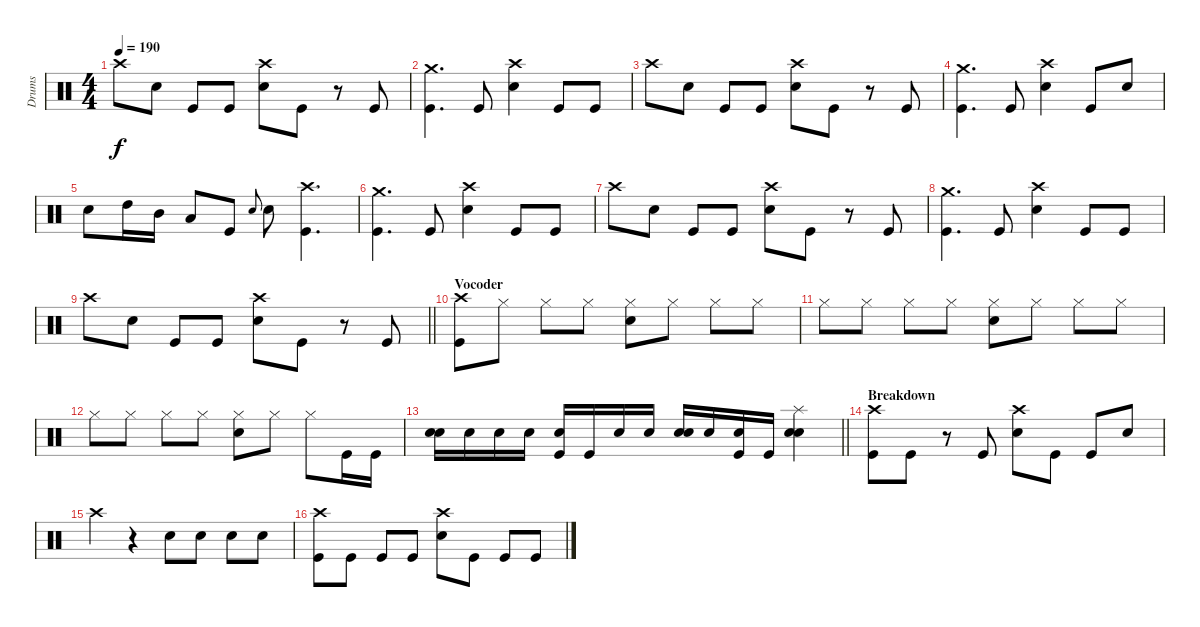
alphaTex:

\track ("Drums" "Drums") {instrument percussion}
\staff {score}
\articulation defaults
\ts (4 4)
\tempo 190
\clef neutral
\ks c "Crash high (hit)".8{dy f} "Snare (hit) 2".8 "Kick (hit)".8 "Kick (hit)".8
("Crash high (hit)" "Snare (hit) 2").8 "Kick (hit)".8 r.8 "Kick (hit)".8 |
("Crash medium (hit)" "Kick (hit)").4{d} "Kick (hit)".8 ("Crash high (hit)" "Snare (hit) 2").4 "Kick (hit)".8 "Kick (hit)".8 |
"Crash high (hit)".8 "Snare (hit) 2".8 "Kick (hit)".8 "Kick (hit)".8 ("Crash high (hit)" "Snare (hit) 2").8 "Kick (hit)".8 r.8 "Kick (hit)".8 |
("Crash medium (hit)" "Kick (hit)").4{d} "Kick (hit)".8 ("Crash high (hit)" "Snare (hit) 2").4 "Kick (hit)".8 "Snare (hit) 2".8 |
"Snare (hit) 2".8 "High Tom (hit)".16 "Mid Tom (hit)".16 "Low Tom (hit)".8 "Kick (hit)".8 "Snare (hit) 2".8{gr onbeat} "Snare (hit) 2".8 ("Crash high (hit)" "Kick (hit)").4{d} |
("Crash medium (hit)" "Kick (hit)").4{d} "Kick (hit)".8 ("Crash high (hit)" "Snare (hit) 2").4 "Kick (hit)".8 "Kick (hit)".8 |
"Crash high (hit)".8 "Snare (hit) 2".8 "Kick (hit)".8 "Kick (hit)".8 ("Crash high (hit)" "Snare (hit) 2").8 "Kick (hit)".8 r.8 "Kick (hit)".8 |
("Crash medium (hit)" "Kick (hit)").4{d} "Kick (hit)".8 ("Crash high (hit)" "Snare (hit) 2").4 "Kick (hit)".8 "Kick (hit)".8 |
\barLineRight lightlight "Crash high (hit)".8 "Snare (hit) 2".8 "Kick (hit)".8 "Kick (hit)".8
("Crash high (hit)" "Snare (hit) 2").8 "Kick (hit)".8 r.8 "Kick (hit)".8 |
\section ("" "Vocoder")
("Crash high (hit)" "Kick (hit)").8 "Hi-Hat (closed)".8 "Hi-Hat (closed)".8 "Hi-Hat (closed)".8 ("Hi-Hat (closed)" "Hand Clap (hit)").8 "Hi-Hat (closed)".8 "Hi-Hat (closed)".8 "Hi-Hat (closed)".8 |
"Hi-Hat (closed)".8 "Hi-Hat (closed)".8 "Hi-Hat (closed)".8 "Hi-Hat (closed)".8 ("Hi-Hat (closed)" "Hand Clap (hit)").8 "Hi-Hat (closed)".8 "Hi-Hat (closed)".8 "Hi-Hat (closed)".8 |
"Hi-Hat (closed)".8 "Hi-Hat (closed)".8 "Hi-Hat (closed)".8 "Hi-Hat (closed)".8 ("Hi-Hat (closed)" "Hand Clap (hit)").8 "Hi-Hat (closed)".8 "Hi-Hat (closed)".8 "Kick (hit)".16 "Kick (hit)".16 |
\barLineRight lightlight
("Hand Clap (hit)" "Snare (hit) 2").16 "Snare (hit) 2".16 "Snare (hit) 2".16 "Snare (hit) 2".16 ("Hand Clap (hit)" "Kick (hit)").16 "Kick (hit)".16 "Snare (hit) 2".16 "Snare (hit) 2".16 ("Hand Clap (hit)" "Snare (hit) 2").16 "Snare (hit) 2".16 ("Hand Clap (hit)" "Kick (hit)").16 "Kick (hit)".16 ("Splash (hit)" "Hand Clap (hit)" "Snare (hit) 2").4 |
\section ("" "Breakdown")
("Crash high (hit)" "Kick (hit)").8 "Kick (hit)".8 r.8 "Kick (hit)".8 ("Crash high (hit)" "Snare (hit) 2").8 "Kick (hit)".8 "Kick (hit)".8 "Snare (hit) 2".8 |
"Crash high (hit)".4 r.4 "Snare (hit) 2".8 "Snare (hit) 2".8 "Snare (hit) 2".8 "Snare (hit) 2".8 |
("Crash high (hit)" "Kick (hit)").8 "Kick (hit)".8 "Kick (hit)".8 "Kick (hit)".8 ("Crash high (hit)" "Snare (hit) 2").8 "Kick (hit)".8 "Kick (hit)".8 "Kick (hit)".8
